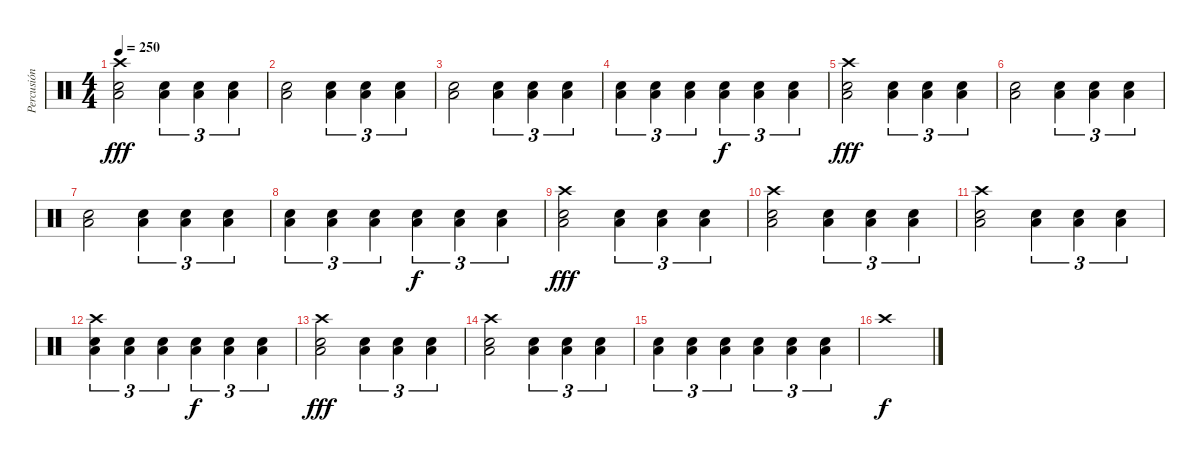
\track ("Percusión" "Percusión") {instrument percussion}
\staff {score}
\articulation defaults
\ts (4 4)
\tempo 250
\clef neutral
\ks c
("Low Floor Tom (hit)" "Electric Snare (hit)" "Crash high (hit)").2{dy fff} ("Low Floor Tom (hit)" "Electric Snare (hit)").4{tu (3 2)} ("Low Floor Tom (hit)" "Electric Snare (hit)").4{tu (3 2)} ("Low Floor Tom (hit)" "Electric Snare (hit)").4{tu (3 2)} |
("Low Floor Tom (hit)" "Electric Snare (hit)").2 ("Low Floor Tom (hit)" "Electric Snare (hit)").4{tu (3 2)} ("Low Floor Tom (hit)" "Electric Snare (hit)").4{tu (3 2)} ("Low Floor Tom (hit)" "Electric Snare (hit)").4{tu (3 2)} |
("Low Floor Tom (hit)" "Electric Snare (hit)").2 ("Low Floor Tom (hit)" "Electric Snare (hit)").4{tu (3 2)} ("Low Floor Tom (hit)" "Electric Snare (hit)").4{tu (3 2)} ("Low Floor Tom (hit)" "Electric Snare (hit)").4{tu (3 2)} |
("Low Floor Tom (hit)" "Electric Snare (hit)").4{tu (3 2)} ("Low Floor Tom (hit)" "Electric Snare (hit)").4{tu (3 2)} ("Low Floor Tom (hit)" "Electric Snare (hit)").4{tu (3 2)} ("Low Floor Tom (hit)" "Electric Snare (hit)").4{tu (3 2) dy f} ("Low Floor Tom (hit)" "Electric Snare (hit)").4{tu (3 2)} ("Low Floor Tom (hit)" "Electric Snare (hit)").4{tu (3 2)} |
("Low Floor Tom (hit)" "Electric Snare (hit)" "Crash high (hit)").2{dy fff} ("Low Floor Tom (hit)" "Electric Snare (hit)").4{tu (3 2)} ("Low Floor Tom (hit)" "Electric Snare (hit)").4{tu (3 2)} ("Low Floor Tom (hit)" "Electric Snare (hit)").4{tu (3 2)} |
("Low Floor Tom (hit)" "Electric Snare (hit)").2 ("Low Floor Tom (hit)" "Electric Snare (hit)").4{tu (3 2)} ("Low Floor Tom (hit)" "Electric Snare (hit)").4{tu (3 2)} ("Low Floor Tom (hit)" "Electric Snare (hit)").4{tu (3 2)} |
("Low Floor Tom (hit)" "Electric Snare (hit)").2 ("Low Floor Tom (hit)" "Electric Snare (hit)").4{tu (3 2)} ("Low Floor Tom (hit)" "Electric Snare (hit)").4{tu (3 2)} ("Low Floor Tom (hit)" "Electric Snare (hit)").4{tu (3 2)} |
("Low Floor Tom (hit)" "Electric Snare (hit)").4{tu (3 2)} ("Low Floor Tom (hit)" "Electric Snare (hit)").4{tu (3 2)} ("Low Floor Tom (hit)" "Electric Snare (hit)").4{tu (3 2)} ("Low Floor Tom (hit)" "Electric Snare (hit)").4{tu (3 2) dy f} ("Low Floor Tom (hit)" "Electric Snare (hit)").4{tu (3 2)} ("Low Floor Tom (hit)" "Electric Snare (hit)").4{tu (3 2)} |
("Low Floor Tom (hit)" "Electric Snare (hit)" "Crash high (hit)").2{dy fff} ("Low Floor Tom (hit)" "Electric Snare (hit)").4{tu (3 2)} ("Low Floor Tom (hit)" "Electric Snare (hit)").4{tu (3 2)} ("Low Floor Tom (hit)" "Electric Snare (hit)").4{tu (3 2)} |
("Low Floor Tom (hit)" "Electric Snare (hit)" "Crash high (hit)").2 ("Low Floor Tom (hit)" "Electric Snare (hit)").4{tu (3 2)} ("Low Floor Tom (hit)" "Electric Snare (hit)").4{tu (3 2)} ("Low Floor Tom (hit)" "Electric Snare (hit)").4{tu (3 2)} |
("Low Floor Tom (hit)" "Electric Snare (hit)" "Crash high (hit)").2 ("Low Floor Tom (hit)" "Electric Snare (hit)").4{tu (3 2)} ("Low Floor Tom (hit)" "Electric Snare (hit)").4{tu (3 2)} ("Low Floor Tom (hit)" "Electric Snare (hit)").4{tu (3 2)} |
("Low Floor Tom (hit)" "Electric Snare (hit)" "Crash high (hit)").4{tu (3 2)} ("Low Floor Tom (hit)" "Electric Snare (hit)").4{tu (3 2)} ("Low Floor Tom (hit)" "Electric Snare (hit)").4{tu (3 2)} ("Low Floor Tom (hit)" "Electric Snare (hit)").4{tu (3 2) dy f} ("Low Floor Tom (hit)" "Electric Snare (hit)").4{tu (3 2)} ("Low Floor Tom (hit)" "Electric Snare (hit)").4{tu (3 2)} |
("Low Floor Tom (hit)" "Electric Snare (hit)" "Crash high (hit)").2{dy fff} ("Low Floor Tom (hit)" "Electric Snare (hit)").4{tu (3 2)} ("Low Floor Tom (hit)" "Electric Snare (hit)").4{tu (3 2)} ("Low Floor Tom (hit)" "Electric Snare (hit)").4{tu (3 2)} |
("Low Floor Tom (hit)" "Electric Snare (hit)" "Crash high (hit)").2 ("Low Floor Tom (hit)" "Electric Snare (hit)").4{tu (3 2)} ("Low Floor Tom (hit)" "Electric Snare (hit)").4{tu (3 2)} ("Low Floor Tom (hit)" "Electric Snare (hit)").4{tu (3 2)} |
("Low Floor Tom (hit)" "Electric Snare (hit)").4{tu (3 2)} ("Low Floor Tom (hit)" "Electric Snare (hit)").4{tu (3 2)} ("Low Floor Tom (hit)" "Electric Snare (hit)").4{tu (3 2)} ("Low Floor Tom (hit)" "Electric Snare (hit)").4{tu (3 2)} ("Low Floor Tom (hit)" "Electric Snare (hit)").4{tu (3 2)} ("Low Floor Tom (hit)" "Electric Snare (hit)").4{tu (3 2)} |
"Crash high (hit)".1{dy f}
